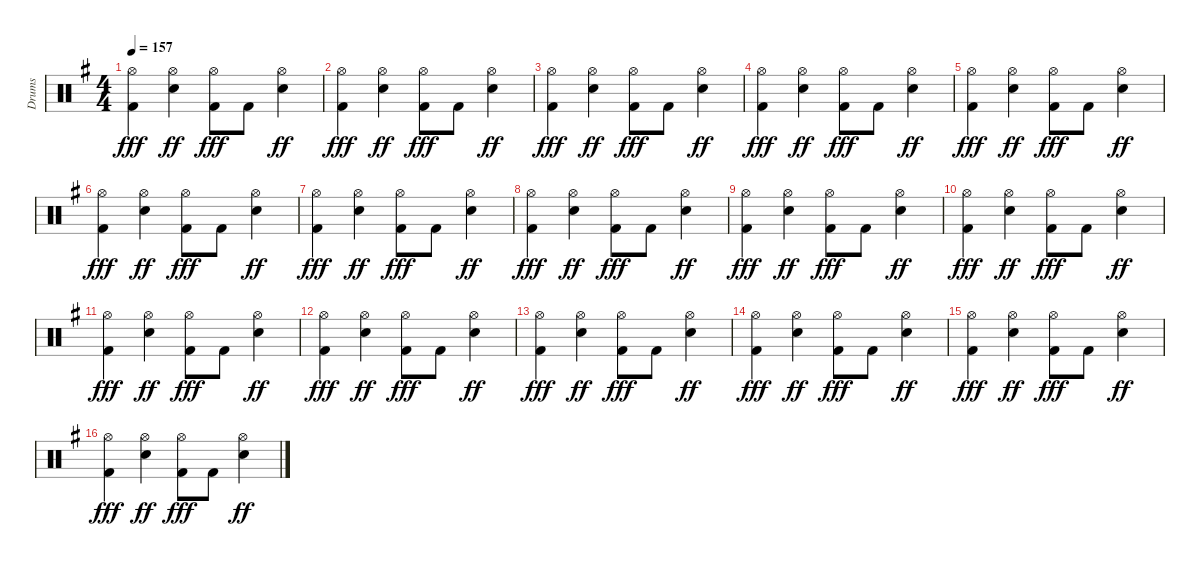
\track ("Drums" "Drums") {instrument percussion}
\staff {score}
\articulation defaults
\ts (4 4)
\tempo 157
\clef neutral
\ks g
("Hi-Hat (open)" "Kick (hit) 2").4{dy fff} ("Electric Snare (hit)" "Hi-Hat (open)").4{dy ff} ("Hi-Hat (open)" "Kick (hit) 2").8{dy fff} "Kick (hit) 2".8 ("Electric Snare (hit)" "Hi-Hat (open)").4{dy ff} |
("Hi-Hat (open)" "Kick (hit) 2").4{dy fff} ("Electric Snare (hit)" "Hi-Hat (open)").4{dy ff} ("Hi-Hat (open)" "Kick (hit) 2").8{dy fff} "Kick (hit) 2".8 ("Electric Snare (hit)" "Hi-Hat (open)").4{dy ff} |
("Hi-Hat (open)" "Kick (hit) 2").4{dy fff} ("Electric Snare (hit)" "Hi-Hat (open)").4{dy ff} ("Hi-Hat (open)" "Kick (hit) 2").8{dy fff} "Kick (hit) 2".8 ("Electric Snare (hit)" "Hi-Hat (open)").4{dy ff} |
("Hi-Hat (open)" "Kick (hit) 2").4{dy fff} ("Electric Snare (hit)" "Hi-Hat (open)").4{dy ff} ("Hi-Hat (open)" "Kick (hit) 2").8{dy fff} "Kick (hit) 2".8 ("Electric Snare (hit)" "Hi-Hat (open)").4{dy ff} |
("Hi-Hat (open)" "Kick (hit) 2").4{dy fff} ("Electric Snare (hit)" "Hi-Hat (open)").4{dy ff} ("Hi-Hat (open)" "Kick (hit) 2").8{dy fff} "Kick (hit) 2".8 ("Electric Snare (hit)" "Hi-Hat (open)").4{dy ff} |
("Hi-Hat (open)" "Kick (hit) 2").4{dy fff} ("Electric Snare (hit)" "Hi-Hat (open)").4{dy ff} ("Hi-Hat (open)" "Kick (hit) 2").8{dy fff} "Kick (hit) 2".8 ("Electric Snare (hit)" "Hi-Hat (open)").4{dy ff} |
("Hi-Hat (open)" "Kick (hit) 2").4{dy fff} ("Electric Snare (hit)" "Hi-Hat (open)").4{dy ff} ("Hi-Hat (open)" "Kick (hit) 2").8{dy fff} "Kick (hit) 2".8 ("Electric Snare (hit)" "Hi-Hat (open)").4{dy ff} |
("Hi-Hat (open)" "Kick (hit) 2").4{dy fff} ("Electric Snare (hit)" "Hi-Hat (open)").4{dy ff} ("Hi-Hat (open)" "Kick (hit) 2").8{dy fff} "Kick (hit) 2".8 ("Electric Snare (hit)" "Hi-Hat (open)").4{dy ff} |
("Hi-Hat (open)" "Kick (hit) 2").4{dy fff} ("Electric Snare (hit)" "Hi-Hat (open)").4{dy ff} ("Hi-Hat (open)" "Kick (hit) 2").8{dy fff} "Kick (hit) 2".8 ("Electric Snare (hit)" "Hi-Hat (open)").4{dy ff} |
("Hi-Hat (open)" "Kick (hit) 2").4{dy fff} ("Electric Snare (hit)" "Hi-Hat (open)").4{dy ff} ("Hi-Hat (open)" "Kick (hit) 2").8{dy fff} "Kick (hit) 2".8 ("Electric Snare (hit)" "Hi-Hat (open)").4{dy ff} |
("Hi-Hat (open)" "Kick (hit) 2").4{dy fff} ("Electric Snare (hit)" "Hi-Hat (open)").4{dy ff} ("Hi-Hat (open)" "Kick (hit) 2").8{dy fff} "Kick (hit) 2".8 ("Electric Snare (hit)" "Hi-Hat (open)").4{dy ff} |
("Hi-Hat (open)" "Kick (hit) 2").4{dy fff} ("Electric Snare (hit)" "Hi-Hat (open)").4{dy ff} ("Hi-Hat (open)" "Kick (hit) 2").8{dy fff} "Kick (hit) 2".8 ("Electric Snare (hit)" "Hi-Hat (open)").4{dy ff} |
("Hi-Hat (open)" "Kick (hit) 2").4{dy fff} ("Electric Snare (hit)" "Hi-Hat (open)").4{dy ff} ("Hi-Hat (open)" "Kick (hit) 2").8{dy fff} "Kick (hit) 2".8 ("Electric Snare (hit)" "Hi-Hat (open)").4{dy ff} |
("Hi-Hat (open)" "Kick (hit) 2").4{dy fff} ("Electric Snare (hit)" "Hi-Hat (open)").4{dy ff} ("Hi-Hat (open)" "Kick (hit) 2").8{dy fff} "Kick (hit) 2".8 ("Electric Snare (hit)" "Hi-Hat (open)").4{dy ff} |
("Hi-Hat (open)" "Kick (hit) 2").4{dy fff} ("Electric Snare (hit)" "Hi-Hat (open)").4{dy ff} ("Hi-Hat (open)" "Kick (hit) 2").8{dy fff} "Kick (hit) 2".8 ("Electric Snare (hit)" "Hi-Hat (open)").4{dy ff} |
("Hi-Hat (open)" "Kick (hit) 2").4{dy fff} ("Electric Snare (hit)" "Hi-Hat (open)").4{dy ff} ("Hi-Hat (open)" "Kick (hit) 2").8{dy fff} "Kick (hit) 2".8 ("Electric Snare (hit)" "Hi-Hat (open)").4{dy ff}
